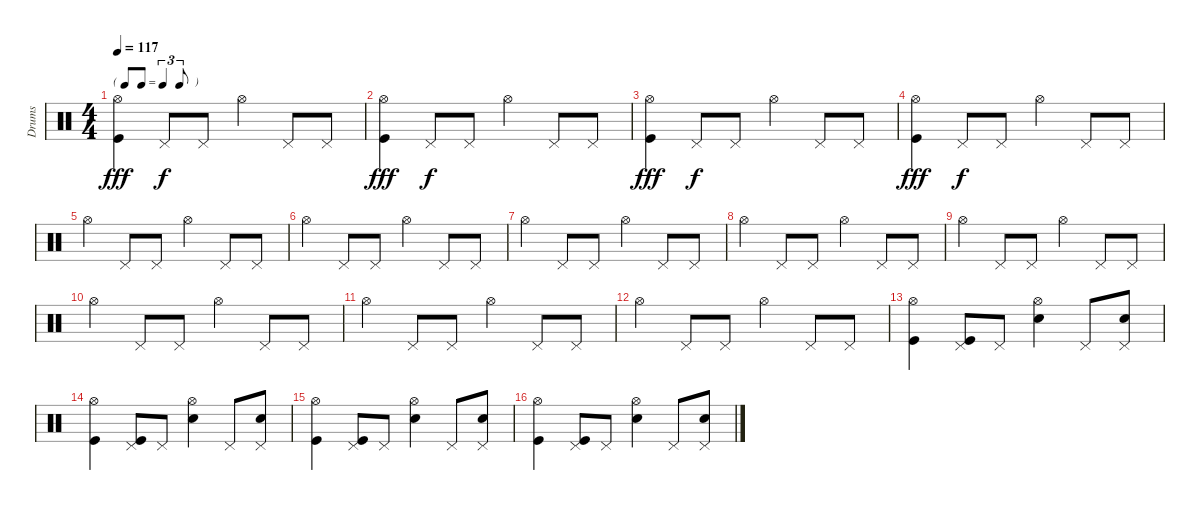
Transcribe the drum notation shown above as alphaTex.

\track ("Drums" "Drums") {instrument percussion}
\staff {score}
\articulation defaults
\ts (4 4)
\tf triplet8th
\tempo 117
\clef neutral
\ks c
("Hi-Hat (open)" "Kick (hit)").4{dy fff} "Pedal Hi-Hat (hit)".8{dy f} "Pedal Hi-Hat (hit)".8 "Hi-Hat (open)".4 "Pedal Hi-Hat (hit)".8 "Pedal Hi-Hat (hit)".8 |
("Hi-Hat (open)" "Kick (hit)").4{dy fff} "Pedal Hi-Hat (hit)".8{dy f} "Pedal Hi-Hat (hit)".8 "Hi-Hat (open)".4 "Pedal Hi-Hat (hit)".8 "Pedal Hi-Hat (hit)".8 |
("Hi-Hat (open)" "Kick (hit)").4{dy fff} "Pedal Hi-Hat (hit)".8{dy f} "Pedal Hi-Hat (hit)".8 "Hi-Hat (open)".4 "Pedal Hi-Hat (hit)".8 "Pedal Hi-Hat (hit)".8 |
("Hi-Hat (open)" "Kick (hit)").4{dy fff} "Pedal Hi-Hat (hit)".8{dy f} "Pedal Hi-Hat (hit)".8 "Hi-Hat (open)".4 "Pedal Hi-Hat (hit)".8 "Pedal Hi-Hat (hit)".8 |
"Hi-Hat (open)".4 "Pedal Hi-Hat (hit)".8 "Pedal Hi-Hat (hit)".8 "Hi-Hat (open)".4 "Pedal Hi-Hat (hit)".8 "Pedal Hi-Hat (hit)".8 |
"Hi-Hat (open)".4 "Pedal Hi-Hat (hit)".8 "Pedal Hi-Hat (hit)".8 "Hi-Hat (open)".4 "Pedal Hi-Hat (hit)".8 "Pedal Hi-Hat (hit)".8 |
"Hi-Hat (open)".4 "Pedal Hi-Hat (hit)".8 "Pedal Hi-Hat (hit)".8 "Hi-Hat (open)".4 "Pedal Hi-Hat (hit)".8 "Pedal Hi-Hat (hit)".8 |
"Hi-Hat (open)".4 "Pedal Hi-Hat (hit)".8 "Pedal Hi-Hat (hit)".8 "Hi-Hat (open)".4 "Pedal Hi-Hat (hit)".8 "Pedal Hi-Hat (hit)".8 |
"Hi-Hat (open)".4 "Pedal Hi-Hat (hit)".8 "Pedal Hi-Hat (hit)".8 "Hi-Hat (open)".4 "Pedal Hi-Hat (hit)".8 "Pedal Hi-Hat (hit)".8 |
"Hi-Hat (open)".4 "Pedal Hi-Hat (hit)".8 "Pedal Hi-Hat (hit)".8 "Hi-Hat (open)".4 "Pedal Hi-Hat (hit)".8 "Pedal Hi-Hat (hit)".8 |
"Hi-Hat (open)".4 "Pedal Hi-Hat (hit)".8 "Pedal Hi-Hat (hit)".8 "Hi-Hat (open)".4 "Pedal Hi-Hat (hit)".8 "Pedal Hi-Hat (hit)".8 |
"Hi-Hat (open)".4 "Pedal Hi-Hat (hit)".8 "Pedal Hi-Hat (hit)".8 "Hi-Hat (open)".4 "Pedal Hi-Hat (hit)".8 "Pedal Hi-Hat (hit)".8 |
("Hi-Hat (open)" "Kick (hit)").4 ("Pedal Hi-Hat (hit)" "Kick (hit)").8 "Pedal Hi-Hat (hit)".8 ("Hi-Hat (open)" "Snare (hit) 2").4 "Pedal Hi-Hat (hit)".8 ("Pedal Hi-Hat (hit)" "Snare (hit) 2").8 |
("Hi-Hat (open)" "Kick (hit)").4 ("Pedal Hi-Hat (hit)" "Kick (hit)").8 "Pedal Hi-Hat (hit)".8 ("Hi-Hat (open)" "Snare (hit) 2").4 "Pedal Hi-Hat (hit)".8 ("Pedal Hi-Hat (hit)" "Snare (hit) 2").8 |
("Hi-Hat (open)" "Kick (hit)").4 ("Pedal Hi-Hat (hit)" "Kick (hit)").8 "Pedal Hi-Hat (hit)".8 ("Hi-Hat (open)" "Snare (hit) 2").4 "Pedal Hi-Hat (hit)".8 ("Pedal Hi-Hat (hit)" "Snare (hit) 2").8 |
("Hi-Hat (open)" "Kick (hit)").4 ("Pedal Hi-Hat (hit)" "Kick (hit)").8 "Pedal Hi-Hat (hit)".8 ("Hi-Hat (open)" "Snare (hit) 2").4 "Pedal Hi-Hat (hit)".8 ("Pedal Hi-Hat (hit)" "Snare (hit) 2").8
